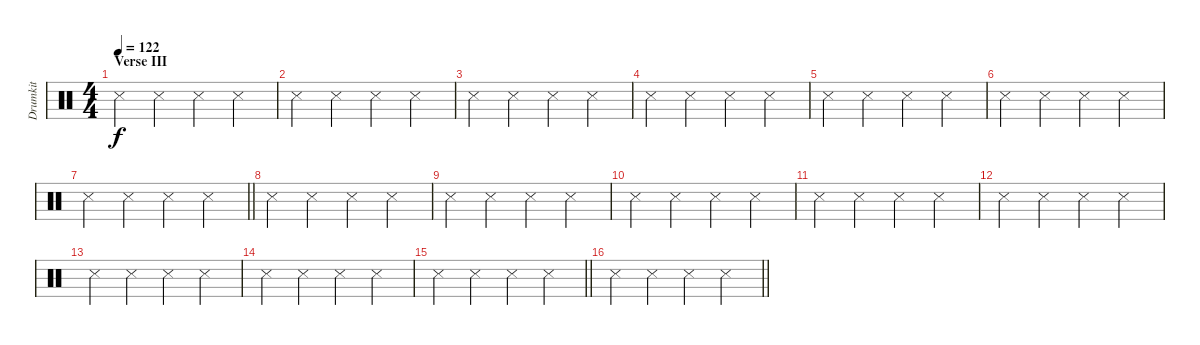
\track ("Drumkit" "Drumkit") {mute instrument percussion}
\staff {score}
\articulation defaults
\ts (4 4)
\section ("" "Verse III")
\tempo 122
\clef neutral
\ks c "Snare (side stick) 3".4{dy f} "Snare (side stick) 3".4 "Snare (side stick) 3".4 "Snare (side stick) 3".4
|
"Snare (side stick) 3".4 "Snare (side stick) 3".4 "Snare (side stick) 3".4 "Snare (side stick) 3".4 |
"Snare (side stick) 3".4 "Snare (side stick) 3".4 "Snare (side stick) 3".4 "Snare (side stick) 3".4 |
"Snare (side stick) 3".4 "Snare (side stick) 3".4 "Snare (side stick) 3".4 "Snare (side stick) 3".4 |
"Snare (side stick) 3".4 "Snare (side stick) 3".4 "Snare (side stick) 3".4 "Snare (side stick) 3".4 |
"Snare (side stick) 3".4 "Snare (side stick) 3".4 "Snare (side stick) 3".4 "Snare (side stick) 3".4 |
\barLineRight lightlight "Snare (side stick) 3".4 "Snare (side stick) 3".4 "Snare (side stick) 3".4 "Snare (side stick) 3".4
|
"Snare (side stick) 3".4 "Snare (side stick) 3".4 "Snare (side stick) 3".4 "Snare (side stick) 3".4 |
"Snare (side stick) 3".4 "Snare (side stick) 3".4 "Snare (side stick) 3".4 "Snare (side stick) 3".4 |
"Snare (side stick) 3".4 "Snare (side stick) 3".4 "Snare (side stick) 3".4 "Snare (side stick) 3".4 |
"Snare (side stick) 3".4 "Snare (side stick) 3".4 "Snare (side stick) 3".4 "Snare (side stick) 3".4 |
"Snare (side stick) 3".4 "Snare (side stick) 3".4 "Snare (side stick) 3".4 "Snare (side stick) 3".4 |
"Snare (side stick) 3".4 "Snare (side stick) 3".4 "Snare (side stick) 3".4 "Snare (side stick) 3".4 |
"Snare (side stick) 3".4 "Snare (side stick) 3".4 "Snare (side stick) 3".4 "Snare (side stick) 3".4 |
\barLineRight lightlight "Snare (side stick) 3".4 "Snare (side stick) 3".4 "Snare (side stick) 3".4 "Snare (side stick) 3".4
|
\barLineRight lightlight "Snare (side stick) 3".4 "Snare (side stick) 3".4 "Snare (side stick) 3".4 "Snare (side stick) 3".4
